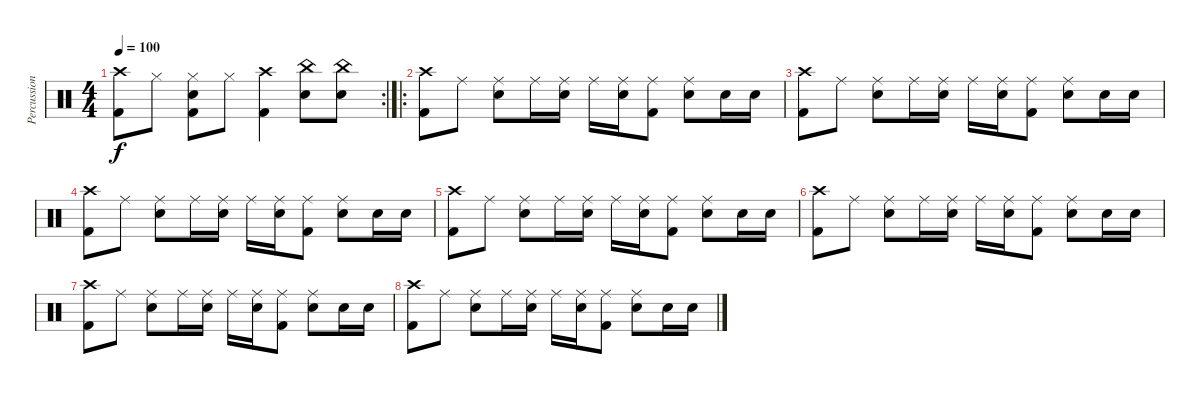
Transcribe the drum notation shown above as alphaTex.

\track ("Percussion" "Percussion") {instrument percussion}
\staff {score}
\articulation defaults
\rc 2
\ts (4 4)
\tempo 100
\clef neutral
\ks c
("Crash high (hit)" "Kick (hit) 2").8{dy f} "Hi-Hat (closed)".8 ("Hi-Hat (closed)" "Snare (hit) 2" "Kick (hit) 2").8 "Hi-Hat (closed)".8 ("Crash high (hit)" "Kick (hit) 2").4 ("China (hit)" "Snare (hit) 2").8 ("China (hit)" "Snare (hit) 2").8 |
\ro
("Crash high (hit)" "Kick (hit) 2").8 "Ride (middle)".8 ("Ride (middle)" "Snare (hit) 2").8 "Ride (middle)".16 ("Ride (middle)" "Snare (hit) 2").16 "Ride (middle)".16 ("Ride (middle)" "Snare (hit) 2").16 ("Ride (middle)" "Kick (hit) 2").8 ("Ride (middle)" "Snare (hit) 2").8 "Snare (hit) 2".16 "Snare (hit) 2".16 |
("Crash high (hit)" "Kick (hit) 2").8 "Ride (middle)".8 ("Ride (middle)" "Snare (hit) 2").8 "Ride (middle)".16 ("Ride (middle)" "Snare (hit) 2").16 "Ride (middle)".16 ("Ride (middle)" "Snare (hit) 2").16 ("Ride (middle)" "Kick (hit) 2").8 ("Ride (middle)" "Snare (hit) 2").8 "Snare (hit) 2".16 "Snare (hit) 2".16 |
("Crash high (hit)" "Kick (hit) 2").8 "Ride (middle)".8 ("Ride (middle)" "Snare (hit) 2").8 "Ride (middle)".16 ("Ride (middle)" "Snare (hit) 2").16 "Ride (middle)".16 ("Ride (middle)" "Snare (hit) 2").16 ("Ride (middle)" "Kick (hit) 2").8 ("Ride (middle)" "Snare (hit) 2").8 "Snare (hit) 2".16 "Snare (hit) 2".16 |
("Crash high (hit)" "Kick (hit) 2").8 "Ride (middle)".8 ("Ride (middle)" "Snare (hit) 2").8 "Ride (middle)".16 ("Ride (middle)" "Snare (hit) 2").16 "Ride (middle)".16 ("Ride (middle)" "Snare (hit) 2").16 ("Ride (middle)" "Kick (hit) 2").8 ("Ride (middle)" "Snare (hit) 2").8 "Snare (hit) 2".16 "Snare (hit) 2".16 |
("Crash high (hit)" "Kick (hit) 2").8 "Ride (middle)".8 ("Ride (middle)" "Snare (hit) 2").8 "Ride (middle)".16 ("Ride (middle)" "Snare (hit) 2").16 "Ride (middle)".16 ("Ride (middle)" "Snare (hit) 2").16 ("Ride (middle)" "Kick (hit) 2").8 ("Ride (middle)" "Snare (hit) 2").8 "Snare (hit) 2".16 "Snare (hit) 2".16 |
("Crash high (hit)" "Kick (hit) 2").8 "Ride (middle)".8 ("Ride (middle)" "Snare (hit) 2").8 "Ride (middle)".16 ("Ride (middle)" "Snare (hit) 2").16 "Ride (middle)".16 ("Ride (middle)" "Snare (hit) 2").16 ("Ride (middle)" "Kick (hit) 2").8 ("Ride (middle)" "Snare (hit) 2").8 "Snare (hit) 2".16 "Snare (hit) 2".16 |
("Crash high (hit)" "Kick (hit) 2").8 "Ride (middle)".8 ("Ride (middle)" "Snare (hit) 2").8 "Ride (middle)".16 ("Ride (middle)" "Snare (hit) 2").16 "Ride (middle)".16 ("Ride (middle)" "Snare (hit) 2").16 ("Ride (middle)" "Kick (hit) 2").8 ("Ride (middle)" "Snare (hit) 2").8 "Snare (hit) 2".16 "Snare (hit) 2".16
